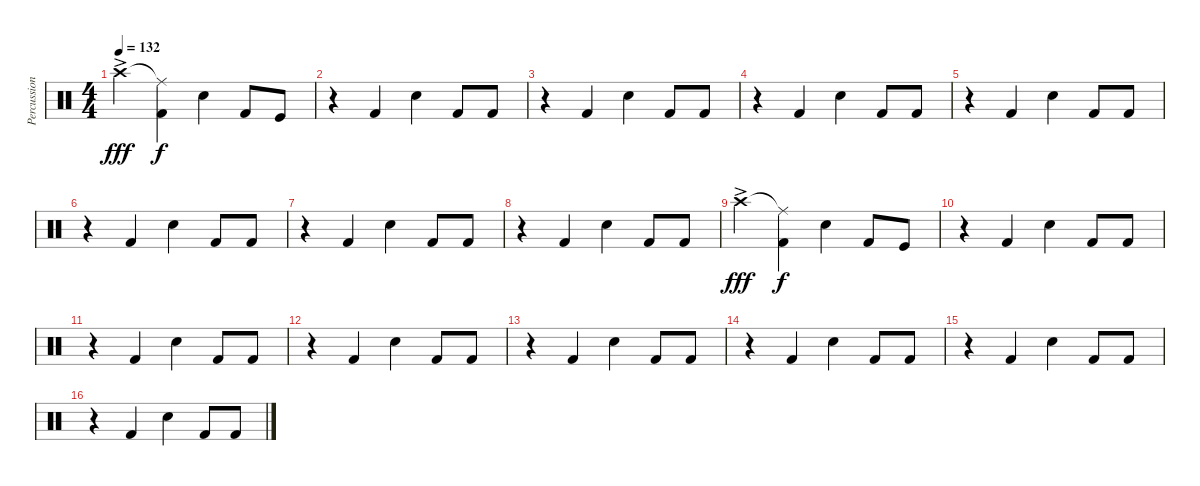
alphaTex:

\track ("Percussions" "Percussion") {instrument percussion}
\staff {score}
\articulation defaults
\ts (4 4)
\tempo 132
\clef neutral
\ks c "Crash high (hit)"{ac}.4{dy fff}
("Ride (middle)"{t} "Kick (hit) 2").4{dy f} "Electric Snare (hit)".4 "Kick (hit) 2".8 "Kick (hit)".8 |
r.4 "Kick (hit) 2".4 "Electric Snare (hit)".4 "Kick (hit) 2".8 "Kick (hit) 2".8 |
r.4 "Kick (hit) 2".4 "Electric Snare (hit)".4 "Kick (hit) 2".8 "Kick (hit) 2".8 |
r.4 "Kick (hit) 2".4 "Electric Snare (hit)".4 "Kick (hit) 2".8 "Kick (hit) 2".8 |
r.4 "Kick (hit) 2".4 "Electric Snare (hit)".4 "Kick (hit) 2".8 "Kick (hit) 2".8 |
r.4 "Kick (hit) 2".4 "Electric Snare (hit)".4 "Kick (hit) 2".8 "Kick (hit) 2".8 |
r.4 "Kick (hit) 2".4 "Electric Snare (hit)".4 "Kick (hit) 2".8 "Kick (hit) 2".8 |
r.4 "Kick (hit) 2".4 "Electric Snare (hit)".4 "Kick (hit) 2".8 "Kick (hit) 2".8 |
"Crash high (hit)"{ac}.4{dy fff} ("Ride (middle)"{t} "Kick (hit) 2").4{dy f} "Electric Snare (hit)".4 "Kick (hit) 2".8 "Kick (hit)".8 |
r.4 "Kick (hit) 2".4 "Electric Snare (hit)".4 "Kick (hit) 2".8 "Kick (hit) 2".8 |
r.4 "Kick (hit) 2".4 "Electric Snare (hit)".4 "Kick (hit) 2".8 "Kick (hit) 2".8 |
r.4 "Kick (hit) 2".4 "Electric Snare (hit)".4 "Kick (hit) 2".8 "Kick (hit) 2".8 |
r.4 "Kick (hit) 2".4 "Electric Snare (hit)".4 "Kick (hit) 2".8 "Kick (hit) 2".8 |
r.4 "Kick (hit) 2".4 "Electric Snare (hit)".4 "Kick (hit) 2".8 "Kick (hit) 2".8 |
r.4 "Kick (hit) 2".4 "Electric Snare (hit)".4 "Kick (hit) 2".8 "Kick (hit) 2".8 |
r.4 "Kick (hit) 2".4 "Electric Snare (hit)".4 "Kick (hit) 2".8 "Kick (hit) 2".8
